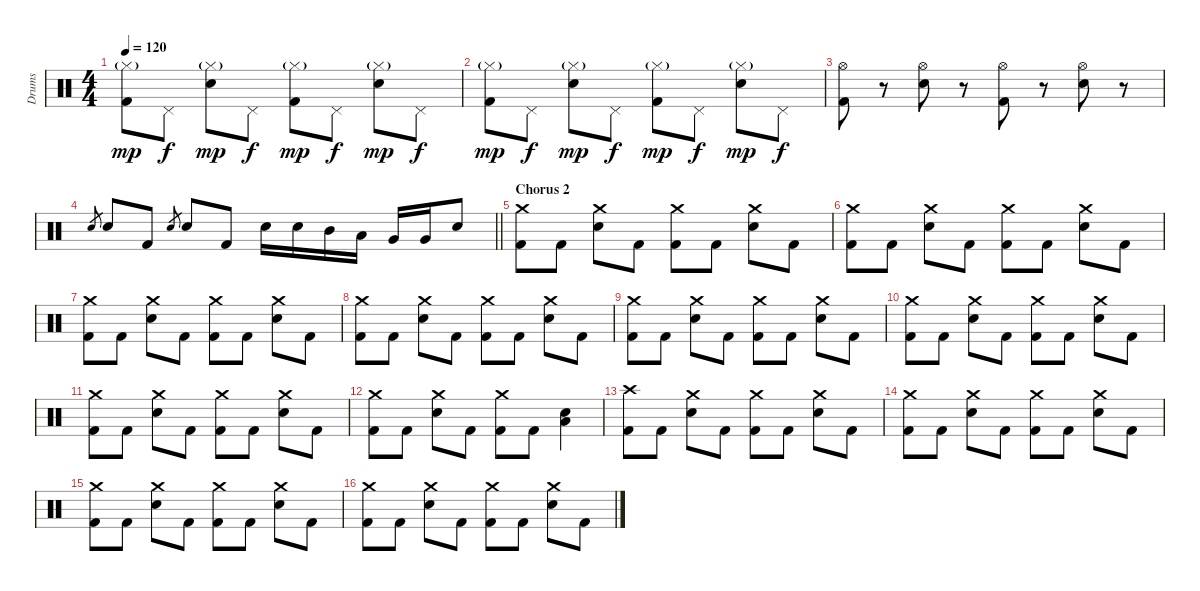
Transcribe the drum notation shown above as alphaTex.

\track ("Drums " "Drums ") {instrument percussion}
\staff {score}
\articulation defaults
\ts (4 4)
\tempo 120
\clef neutral
\ks c
("Hi-Hat (closed)"{g} "Kick (hit) 2").8{dy mp} "Pedal Hi-Hat (hit)".8{dy f} ("Hi-Hat (closed)"{g} "Electric Snare (hit)").8{dy mp} "Pedal Hi-Hat (hit)".8{dy f} ("Hi-Hat (closed)"{g} "Kick (hit) 2").8{dy mp} "Pedal Hi-Hat (hit)".8{dy f} ("Hi-Hat (closed)"{g} "Electric Snare (hit)").8{dy mp} "Pedal Hi-Hat (hit)".8{dy f} |
("Hi-Hat (closed)"{g} "Kick (hit) 2").8{dy mp} "Pedal Hi-Hat (hit)".8{dy f} ("Hi-Hat (closed)"{g} "Electric Snare (hit)").8{dy mp} "Pedal Hi-Hat (hit)".8{dy f} ("Hi-Hat (closed)"{g} "Kick (hit) 2").8{dy mp} "Pedal Hi-Hat (hit)".8{dy f} ("Hi-Hat (closed)"{g} "Electric Snare (hit)").8{dy mp} "Pedal Hi-Hat (hit)".8{dy f} |
("Hi-Hat (open)" "Kick (hit) 2").8 r.8 ("Hi-Hat (open)" "Electric Snare (hit)").8 r.8 ("Hi-Hat (open)" "Kick (hit) 2").8 r.8 ("Hi-Hat (open)" "Electric Snare (hit)").8 r.8 |
\barLineRight lightlight "Electric Snare (hit)".8{gr} "Electric Snare (hit)".8 "Kick (hit) 2".8 "Electric Snare (hit)".8{gr} "Electric Snare (hit)".8 "Kick (hit) 2".8 "Electric Snare (hit)".16 "Electric Snare (hit)".16 "Mid Tom (hit)".16 "Low Tom (hit)".16 "Very Low Tom (hit)".16 "Very Low Tom (hit)".16 "Electric Snare (hit)".8
|
\section ("" "Chorus 2")
("Crash medium (hit)" "Kick (hit) 2").8 "Kick (hit) 2".8 ("Crash medium (hit)" "Electric Snare (hit)").8 "Kick (hit) 2".8 ("Crash medium (hit)" "Kick (hit) 2").8 "Kick (hit) 2".8 ("Crash medium (hit)" "Electric Snare (hit)").8 "Kick (hit) 2".8 |
("Crash medium (hit)" "Kick (hit) 2").8 "Kick (hit) 2".8 ("Crash medium (hit)" "Electric Snare (hit)").8 "Kick (hit) 2".8 ("Crash medium (hit)" "Kick (hit) 2").8 "Kick (hit) 2".8 ("Crash medium (hit)" "Electric Snare (hit)").8 "Kick (hit) 2".8 |
("Crash medium (hit)" "Kick (hit) 2").8 "Kick (hit) 2".8 ("Crash medium (hit)" "Electric Snare (hit)").8 "Kick (hit) 2".8 ("Crash medium (hit)" "Kick (hit) 2").8 "Kick (hit) 2".8 ("Crash medium (hit)" "Electric Snare (hit)").8 "Kick (hit) 2".8 |
("Crash medium (hit)" "Kick (hit) 2").8 "Kick (hit) 2".8 ("Crash medium (hit)" "Electric Snare (hit)").8 "Kick (hit) 2".8 ("Crash medium (hit)" "Kick (hit) 2").8 "Kick (hit) 2".8 ("Crash medium (hit)" "Electric Snare (hit)").8 "Kick (hit) 2".8 |
("Crash medium (hit)" "Kick (hit) 2").8 "Kick (hit) 2".8 ("Crash medium (hit)" "Electric Snare (hit)").8 "Kick (hit) 2".8 ("Crash medium (hit)" "Kick (hit) 2").8 "Kick (hit) 2".8 ("Crash medium (hit)" "Electric Snare (hit)").8 "Kick (hit) 2".8 |
("Crash medium (hit)" "Kick (hit) 2").8 "Kick (hit) 2".8 ("Crash medium (hit)" "Electric Snare (hit)").8 "Kick (hit) 2".8 ("Crash medium (hit)" "Kick (hit) 2").8 "Kick (hit) 2".8 ("Crash medium (hit)" "Electric Snare (hit)").8 "Kick (hit) 2".8 |
("Crash medium (hit)" "Kick (hit) 2").8 "Kick (hit) 2".8 ("Crash medium (hit)" "Electric Snare (hit)").8 "Kick (hit) 2".8 ("Crash medium (hit)" "Kick (hit) 2").8 "Kick (hit) 2".8 ("Crash medium (hit)" "Electric Snare (hit)").8 "Kick (hit) 2".8 |
("Crash medium (hit)" "Kick (hit) 2").8 "Kick (hit) 2".8 ("Crash medium (hit)" "Electric Snare (hit)").8 "Kick (hit) 2".8 ("Crash medium (hit)" "Kick (hit) 2").8 "Kick (hit) 2".8 ("Low Tom (hit)" "Electric Snare (hit)").4 |
("Crash high (hit)" "Kick (hit) 2").8 "Kick (hit) 2".8 ("Crash medium (hit)" "Electric Snare (hit)").8 "Kick (hit) 2".8 ("Crash medium (hit)" "Kick (hit) 2").8 "Kick (hit) 2".8 ("Crash medium (hit)" "Electric Snare (hit)").8 "Kick (hit) 2".8 |
("Crash medium (hit)" "Kick (hit) 2").8 "Kick (hit) 2".8 ("Crash medium (hit)" "Electric Snare (hit)").8 "Kick (hit) 2".8 ("Crash medium (hit)" "Kick (hit) 2").8 "Kick (hit) 2".8 ("Crash medium (hit)" "Electric Snare (hit)").8 "Kick (hit) 2".8 |
("Crash medium (hit)" "Kick (hit) 2").8 "Kick (hit) 2".8 ("Crash medium (hit)" "Electric Snare (hit)").8 "Kick (hit) 2".8 ("Crash medium (hit)" "Kick (hit) 2").8 "Kick (hit) 2".8 ("Crash medium (hit)" "Electric Snare (hit)").8 "Kick (hit) 2".8 |
("Crash medium (hit)" "Kick (hit) 2").8 "Kick (hit) 2".8 ("Crash medium (hit)" "Electric Snare (hit)").8 "Kick (hit) 2".8 ("Crash medium (hit)" "Kick (hit) 2").8 "Kick (hit) 2".8 ("Crash medium (hit)" "Electric Snare (hit)").8 "Kick (hit) 2".8
